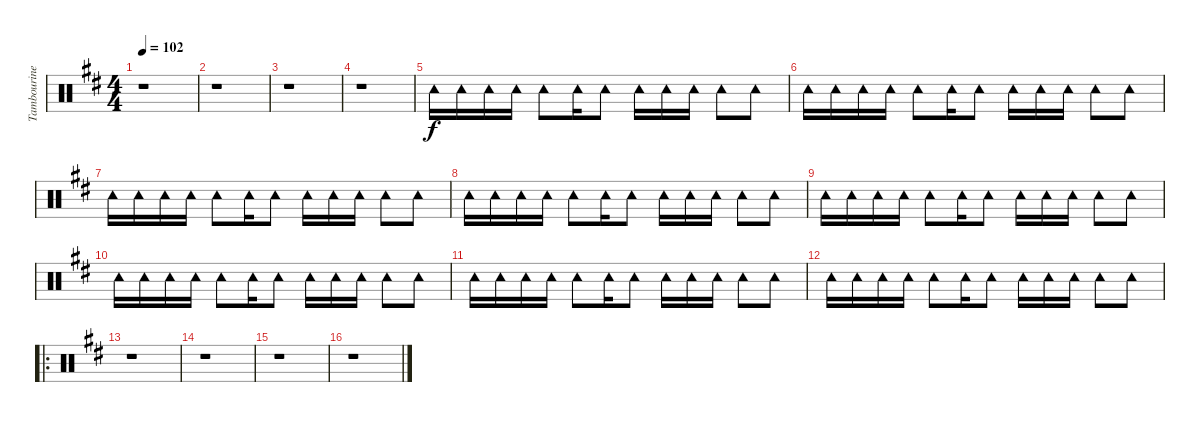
\track ("Tambourine" "Tambourine") {instrument percussion}
\staff {score}
\articulation defaults
\ts (4 4)
\tempo 102
\clef neutral
\ks d
r.1{dy f} |
r.1 |
r.1 |
r.1 |
"Tambourine (hit)".16 "Tambourine (hit)".16 "Tambourine (hit)".16 "Tambourine (hit)".16 "Tambourine (hit)".8 "Tambourine (hit)".16 "Tambourine (hit)".8 "Tambourine (hit)".16 "Tambourine (hit)".16 "Tambourine (hit)".16 "Tambourine (hit)".8 "Tambourine (hit)".8 |
"Tambourine (hit)".16 "Tambourine (hit)".16 "Tambourine (hit)".16 "Tambourine (hit)".16 "Tambourine (hit)".8 "Tambourine (hit)".16 "Tambourine (hit)".8 "Tambourine (hit)".16 "Tambourine (hit)".16 "Tambourine (hit)".16 "Tambourine (hit)".8 "Tambourine (hit)".8 |
"Tambourine (hit)".16 "Tambourine (hit)".16 "Tambourine (hit)".16 "Tambourine (hit)".16 "Tambourine (hit)".8 "Tambourine (hit)".16 "Tambourine (hit)".8 "Tambourine (hit)".16 "Tambourine (hit)".16 "Tambourine (hit)".16 "Tambourine (hit)".8 "Tambourine (hit)".8 |
"Tambourine (hit)".16 "Tambourine (hit)".16 "Tambourine (hit)".16 "Tambourine (hit)".16 "Tambourine (hit)".8 "Tambourine (hit)".16 "Tambourine (hit)".8 "Tambourine (hit)".16 "Tambourine (hit)".16 "Tambourine (hit)".16 "Tambourine (hit)".8 "Tambourine (hit)".8 |
"Tambourine (hit)".16 "Tambourine (hit)".16 "Tambourine (hit)".16 "Tambourine (hit)".16 "Tambourine (hit)".8 "Tambourine (hit)".16 "Tambourine (hit)".8 "Tambourine (hit)".16 "Tambourine (hit)".16 "Tambourine (hit)".16 "Tambourine (hit)".8 "Tambourine (hit)".8 |
"Tambourine (hit)".16 "Tambourine (hit)".16 "Tambourine (hit)".16 "Tambourine (hit)".16 "Tambourine (hit)".8 "Tambourine (hit)".16 "Tambourine (hit)".8 "Tambourine (hit)".16 "Tambourine (hit)".16 "Tambourine (hit)".16 "Tambourine (hit)".8 "Tambourine (hit)".8 |
"Tambourine (hit)".16 "Tambourine (hit)".16 "Tambourine (hit)".16 "Tambourine (hit)".16 "Tambourine (hit)".8 "Tambourine (hit)".16 "Tambourine (hit)".8 "Tambourine (hit)".16 "Tambourine (hit)".16 "Tambourine (hit)".16 "Tambourine (hit)".8 "Tambourine (hit)".8 |
"Tambourine (hit)".16 "Tambourine (hit)".16 "Tambourine (hit)".16 "Tambourine (hit)".16 "Tambourine (hit)".8 "Tambourine (hit)".16 "Tambourine (hit)".8 "Tambourine (hit)".16 "Tambourine (hit)".16 "Tambourine (hit)".16 "Tambourine (hit)".8 "Tambourine (hit)".8 |
\ro
r.1 |
r.1 |
r.1 |
r.1
